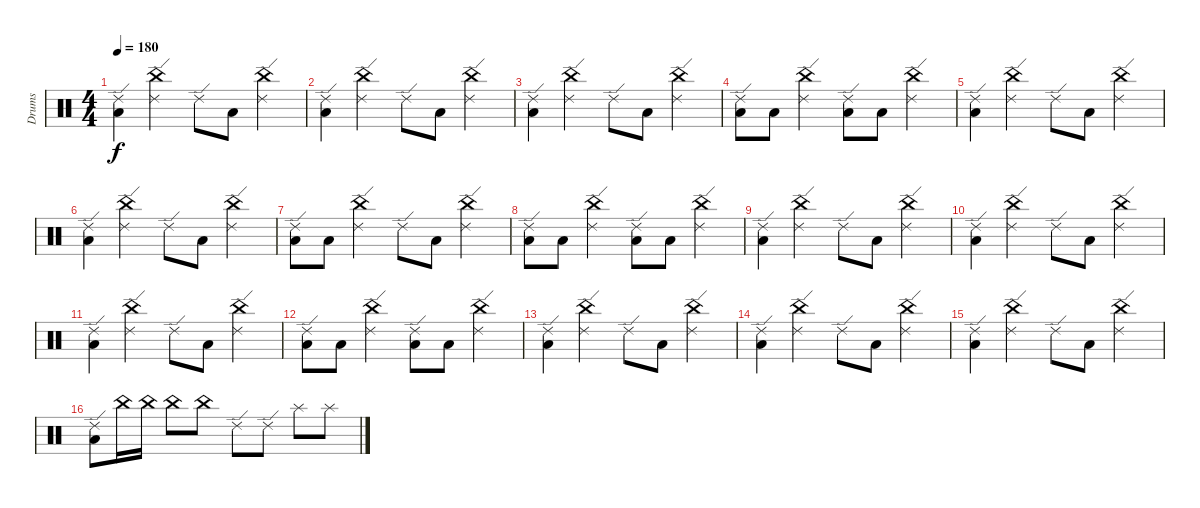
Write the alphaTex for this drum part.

\track ("Drums" "Drums") {instrument percussion}
\staff {score}
\articulation defaults
\ts (4 4)
\tempo 180
\clef neutral
\ks c
("Ride (edge) 2" "Low Tom (hit)").4{dy f} ("China (hit)" "Ride (edge) 2").4 "Ride (edge) 2".8 "Low Tom (hit)".8 ("China (hit)" "Ride (edge) 2").4 |
("Low Tom (hit)" "Ride (edge) 2").4 ("China (hit)" "Ride (edge) 2").4 "Ride (edge) 2".8 "Low Tom (hit)".8 ("China (hit)" "Ride (edge) 2").4 |
("Low Tom (hit)" "Ride (edge) 2").4 ("China (hit)" "Ride (edge) 2").4 "Ride (edge) 2".8 "Low Tom (hit)".8 ("China (hit)" "Ride (edge) 2").4 |
("Ride (edge) 2" "Low Tom (hit)").8 "Low Tom (hit)".8 ("China (hit)" "Ride (edge) 2").4 ("Ride (edge) 2" "Low Tom (hit)").8 "Low Tom (hit)".8 ("China (hit)" "Ride (edge) 2").4 |
("Low Tom (hit)" "Ride (edge) 2").4 ("China (hit)" "Ride (edge) 2").4 "Ride (edge) 2".8 "Low Tom (hit)".8 ("China (hit)" "Ride (edge) 2").4 |
("Low Tom (hit)" "Ride (edge) 2").4 ("China (hit)" "Ride (edge) 2").4 "Ride (edge) 2".8 "Low Tom (hit)".8 ("China (hit)" "Ride (edge) 2").4 |
("Low Tom (hit)" "Ride (edge) 2").8 "Low Tom (hit)".8 ("Ride (edge) 2" "China (hit)").4 "Ride (edge) 2".8 "Low Tom (hit)".8 ("Ride (edge) 2" "China (hit)").4 |
("Low Tom (hit)" "Ride (edge) 2").8 "Low Tom (hit)".8 ("Ride (edge) 2" "China (hit)").4 ("Ride (edge) 2" "Low Tom (hit)").8 "Low Tom (hit)".8 ("Ride (edge) 2" "China (hit)").4 |
("Low Tom (hit)" "Ride (edge) 2").4 ("China (hit)" "Ride (edge) 2").4 "Ride (edge) 2".8 "Low Tom (hit)".8 ("China (hit)" "Ride (edge) 2").4 |
("Ride (edge) 2" "Low Tom (hit)").4 ("China (hit)" "Ride (edge) 2").4 "Ride (edge) 2".8 "Low Tom (hit)".8 ("China (hit)" "Ride (edge) 2").4 |
("Ride (edge) 2" "Low Tom (hit)").4 ("China (hit)" "Ride (edge) 2").4 "Ride (edge) 2".8 "Low Tom (hit)".8 ("China (hit)" "Ride (edge) 2").4 |
("Low Tom (hit)" "Ride (edge) 2").8 "Low Tom (hit)".8 ("China (hit)" "Ride (edge) 2").4 ("Low Tom (hit)" "Ride (edge) 2").8 "Low Tom (hit)".8 ("China (hit)" "Ride (edge) 2").4 |
("Low Tom (hit)" "Ride (edge) 2").4 ("Ride (edge) 2" "China (hit)").4 "Ride (edge) 2".8 "Low Tom (hit)".8 ("Ride (edge) 2" "China (hit)").4 |
("Low Tom (hit)" "Ride (edge) 2").4 ("China (hit)" "Ride (edge) 2").4 "Ride (edge) 2".8 "Low Tom (hit)".8 ("China (hit)" "Ride (edge) 2").4 |
("Ride (edge) 2" "Low Tom (hit)").4 ("Ride (edge) 2" "China (hit)").4 "Ride (edge) 2".8 "Low Tom (hit)".8 ("Ride (edge) 2" "China (hit)").4 |
("Low Tom (hit)" "Ride (edge) 2").8 "China (hit)".16 "China (hit)".16 "China (hit)".8 "China (hit)".8 "Ride (edge) 2".8 "Ride (edge) 2".8 "Splash (hit)".8 "Splash (hit)".8
